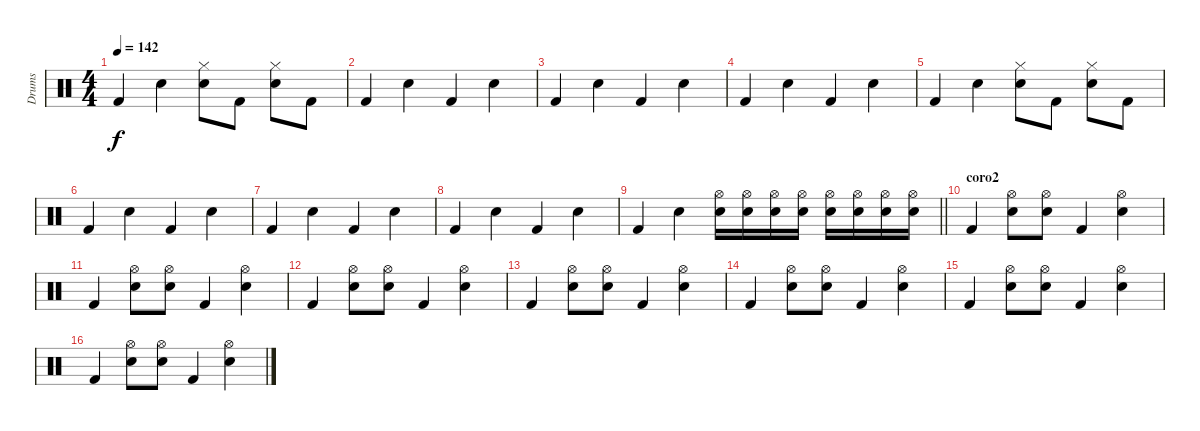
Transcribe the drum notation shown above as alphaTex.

\track ("Drums" "Drums") {instrument percussion}
\staff {score}
\articulation defaults
\ts (4 4)
\tempo 142
\clef neutral
\ks c "Kick (hit) 2".4{dy f} "Electric Snare (hit)".4
("Electric Snare (hit)" "Hi-Hat (closed)").8 "Kick (hit) 2".8 ("Electric Snare (hit)" "Hi-Hat (closed)").8 "Kick (hit) 2".8 |
"Kick (hit) 2".4 "Electric Snare (hit)".4 "Kick (hit) 2".4 "Electric Snare (hit)".4 |
"Kick (hit) 2".4 "Electric Snare (hit)".4 "Kick (hit) 2".4 "Electric Snare (hit)".4 |
"Kick (hit) 2".4 "Electric Snare (hit)".4 "Kick (hit) 2".4 "Electric Snare (hit)".4 |
"Kick (hit) 2".4 "Electric Snare (hit)".4 ("Electric Snare (hit)" "Hi-Hat (closed)").8 "Kick (hit) 2".8 ("Electric Snare (hit)" "Hi-Hat (closed)").8 "Kick (hit) 2".8 |
"Kick (hit) 2".4 "Electric Snare (hit)".4 "Kick (hit) 2".4 "Electric Snare (hit)".4 |
"Kick (hit) 2".4 "Electric Snare (hit)".4 "Kick (hit) 2".4 "Electric Snare (hit)".4 |
"Kick (hit) 2".4 "Electric Snare (hit)".4 "Kick (hit) 2".4 "Electric Snare (hit)".4 |
\barLineRight lightlight "Kick (hit) 2".4 "Electric Snare (hit)".4
("Electric Snare (hit)" "Hi-Hat (open)").16 ("Electric Snare (hit)" "Hi-Hat (open)").16 ("Electric Snare (hit)" "Hi-Hat (open)").16 ("Electric Snare (hit)" "Hi-Hat (open)").16 ("Electric Snare (hit)" "Hi-Hat (open)").16 ("Electric Snare (hit)" "Hi-Hat (open)").16 ("Electric Snare (hit)" "Hi-Hat (open)").16 ("Electric Snare (hit)" "Hi-Hat (open)").16 |
\section ("" "coro2")
"Kick (hit) 2".4 ("Electric Snare (hit)" "Hi-Hat (open)").8 ("Electric Snare (hit)" "Hi-Hat (open)").8 "Kick (hit) 2".4 ("Electric Snare (hit)" "Hi-Hat (open)").4 |
"Kick (hit) 2".4 ("Electric Snare (hit)" "Hi-Hat (open)").8 ("Electric Snare (hit)" "Hi-Hat (open)").8 "Kick (hit) 2".4 ("Electric Snare (hit)" "Hi-Hat (open)").4 |
"Kick (hit) 2".4 ("Electric Snare (hit)" "Hi-Hat (open)").8 ("Electric Snare (hit)" "Hi-Hat (open)").8 "Kick (hit) 2".4 ("Electric Snare (hit)" "Hi-Hat (open)").4 |
"Kick (hit) 2".4 ("Electric Snare (hit)" "Hi-Hat (open)").8 ("Electric Snare (hit)" "Hi-Hat (open)").8 "Kick (hit) 2".4 ("Electric Snare (hit)" "Hi-Hat (open)").4 |
"Kick (hit) 2".4 ("Electric Snare (hit)" "Hi-Hat (open)").8 ("Electric Snare (hit)" "Hi-Hat (open)").8 "Kick (hit) 2".4 ("Electric Snare (hit)" "Hi-Hat (open)").4 |
"Kick (hit) 2".4 ("Electric Snare (hit)" "Hi-Hat (open)").8 ("Electric Snare (hit)" "Hi-Hat (open)").8 "Kick (hit) 2".4 ("Electric Snare (hit)" "Hi-Hat (open)").4 |
"Kick (hit) 2".4 ("Electric Snare (hit)" "Hi-Hat (open)").8 ("Electric Snare (hit)" "Hi-Hat (open)").8 "Kick (hit) 2".4 ("Electric Snare (hit)" "Hi-Hat (open)").4
